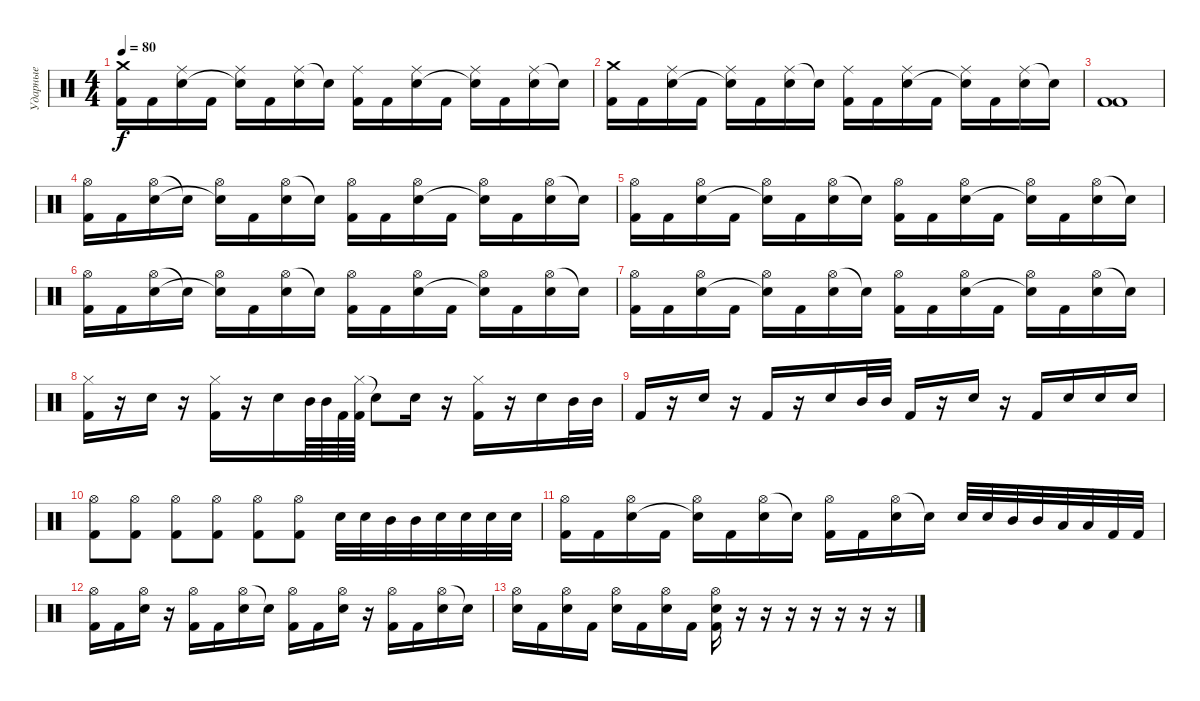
\track ("Ударные" "Ударные") {instrument percussion}
\staff {score}
\articulation defaults
\ts (4 4)
\tempo 80
\clef neutral
\ks c
("Crash medium (hit)" "Kick (hit) 2").16{dy f} "Kick (hit) 2".16 ("Ride (middle)" "Electric Snare (hit)").16 "Kick (hit) 2".16 ("Ride (middle)" "Snare (hit)"{t}).16 "Kick (hit) 2".16 ("Ride (middle)" "Electric Snare (hit)").16 "Snare (hit)"{t}.16 ("Ride (middle)" "Kick (hit) 2").16 "Kick (hit) 2".16 ("Ride (middle)" "Electric Snare (hit)").16 "Kick (hit) 2".16 ("Ride (middle)" "Snare (hit)"{t}).16 "Kick (hit) 2".16 ("Ride (middle)" "Electric Snare (hit)").16 "Snare (hit)"{t}.16 |
("Crash medium (hit)" "Kick (hit) 2").16 "Kick (hit) 2".16 ("Ride (middle)" "Electric Snare (hit)").16 "Kick (hit) 2".16 ("Ride (middle)" "Snare (hit)"{t}).16 "Kick (hit) 2".16 ("Ride (middle)" "Electric Snare (hit)").16 "Snare (hit)"{t}.16 ("Ride (middle)" "Kick (hit) 2").16 "Kick (hit) 2".16 ("Ride (middle)" "Electric Snare (hit)").16 "Kick (hit) 2".16 ("Ride (middle)" "Snare (hit)"{t}).16 "Kick (hit) 2".16 ("Ride (middle)" "Electric Snare (hit)").16 "Snare (hit)"{t}.16 |
("Kick (hit) 2" "Kick (hit) 2").1 |
("Hi-Hat (open)" "Kick (hit) 2").16 "Kick (hit) 2".16 ("Hi-Hat (open)" "Electric Snare (hit)").16 "Snare (hit)"{t}.16 ("Hi-Hat (open)" "Snare (hit)"{t}).16 "Kick (hit) 2".16 ("Hi-Hat (open)" "Electric Snare (hit)").16 "Snare (hit)"{t}.16 ("Hi-Hat (open)" "Kick (hit) 2").16 "Kick (hit) 2".16 ("Hi-Hat (open)" "Electric Snare (hit)").16 "Kick (hit) 2".16 ("Hi-Hat (open)" "Snare (hit)"{t}).16 "Kick (hit) 2".16 ("Hi-Hat (open)" "Electric Snare (hit)").16 "Snare (hit)"{t}.16 |
("Hi-Hat (open)" "Kick (hit) 2").16 "Kick (hit) 2".16 ("Hi-Hat (open)" "Electric Snare (hit)").16 "Kick (hit) 2".16 ("Hi-Hat (open)" "Snare (hit)"{t}).16 "Kick (hit) 2".16 ("Hi-Hat (open)" "Electric Snare (hit)").16 "Snare (hit)"{t}.16 ("Hi-Hat (open)" "Kick (hit) 2").16 "Kick (hit) 2".16 ("Hi-Hat (open)" "Electric Snare (hit)").16 "Kick (hit) 2".16 ("Hi-Hat (open)" "Snare (hit)"{t}).16 "Kick (hit) 2".16 ("Hi-Hat (open)" "Electric Snare (hit)").16 "Snare (hit)"{t}.16 |
("Hi-Hat (open)" "Kick (hit) 2").16 "Kick (hit) 2".16 ("Hi-Hat (open)" "Electric Snare (hit)").16 "Snare (hit)"{t}.16 ("Hi-Hat (open)" "Snare (hit)"{t}).16 "Kick (hit) 2".16 ("Hi-Hat (open)" "Electric Snare (hit)").16 "Snare (hit)"{t}.16 ("Hi-Hat (open)" "Kick (hit) 2").16 "Kick (hit) 2".16 ("Hi-Hat (open)" "Electric Snare (hit)").16 "Kick (hit) 2".16 ("Hi-Hat (open)" "Snare (hit)"{t}).16 "Kick (hit) 2".16 ("Hi-Hat (open)" "Electric Snare (hit)").16 "Snare (hit)"{t}.16 |
("Hi-Hat (open)" "Kick (hit) 2").16 "Kick (hit) 2".16 ("Hi-Hat (open)" "Electric Snare (hit)").16 "Kick (hit) 2".16 ("Hi-Hat (open)" "Snare (hit)"{t}).16 "Kick (hit) 2".16 ("Hi-Hat (open)" "Electric Snare (hit)").16 "Snare (hit)"{t}.16 ("Hi-Hat (open)" "Kick (hit) 2").16 "Kick (hit) 2".16 ("Hi-Hat (open)" "Electric Snare (hit)").16 "Kick (hit) 2".16 ("Hi-Hat (open)" "Snare (hit)"{t}).16 "Kick (hit) 2".16 ("Hi-Hat (open)" "Electric Snare (hit)").16 "Snare (hit)"{t}.16 |
("Hi-Hat (closed)" "Kick (hit) 2").16 r.16 "Electric Snare (hit)".16 r.16 ("Hi-Hat (closed)" "Kick (hit) 2").16 r.16 "Electric Snare (hit)".16 "Mid Tom (hit)".64 "Mid Tom (hit)".64 "Kick (hit) 2".64 ("Hi-Hat (closed)" "Kick (hit) 2").64 "Snare (hit)"{t}.8 "Electric Snare (hit)".16 r.16 ("Hi-Hat (closed)" "Kick (hit) 2").16 r.16 "Electric Snare (hit)".16 "Mid Tom (hit)".32 "Mid Tom (hit)".32 |
"Kick (hit) 2".16 r.16 "Electric Snare (hit)".16 r.16 "Kick (hit) 2".16 r.16 "Electric Snare (hit)".16 "Mid Tom (hit)".32 "Mid Tom (hit)".32 "Kick (hit) 2".16 r.16 "Electric Snare (hit)".16 r.16 "Kick (hit) 2".16 "Electric Snare (hit)".16 "Electric Snare (hit)".16 "Electric Snare (hit)".16 |
("Hi-Hat (open)" "Kick (hit) 2").8 ("Hi-Hat (open)" "Kick (hit) 2").8 ("Hi-Hat (open)" "Kick (hit) 2").8 ("Hi-Hat (open)" "Kick (hit) 2").8 ("Hi-Hat (open)" "Kick (hit) 2").8 ("Hi-Hat (open)" "Kick (hit) 2").8 "Electric Snare (hit)".32 "Electric Snare (hit)".32 "Mid Tom (hit)".32 "Mid Tom (hit)".32 "Electric Snare (hit)".32 "Electric Snare (hit)".32 "Electric Snare (hit)".32 "Electric Snare (hit)".32 |
("Hi-Hat (open)" "Kick (hit) 2").16 "Kick (hit) 2".16 ("Hi-Hat (open)" "Electric Snare (hit)").16 "Kick (hit) 2".16 ("Hi-Hat (open)" "Snare (hit)"{t}).16 "Kick (hit) 2".16 ("Hi-Hat (open)" "Electric Snare (hit)").16 "Snare (hit)"{t}.16 ("Hi-Hat (open)" "Kick (hit) 2").16 "Kick (hit) 2".16 ("Hi-Hat (open)" "Electric Snare (hit)").16 "Snare (hit)"{t}.16 "Electric Snare (hit)".32 "Electric Snare (hit)".32 "Mid Tom (hit)".32 "Mid Tom (hit)".32 "Low Tom (hit)".32 "Low Tom (hit)".32 "Kick (hit) 2".32 "Kick (hit) 2".32 |
("Hi-Hat (open)" "Kick (hit) 2").16 "Kick (hit) 2".16 ("Hi-Hat (open)" "Electric Snare (hit)").16 r.16 ("Hi-Hat (open)" "Kick (hit) 2").16 "Kick (hit) 2".16 ("Hi-Hat (open)" "Electric Snare (hit)").16 "Snare (hit)"{t}.16 ("Hi-Hat (open)" "Kick (hit) 2").16 "Kick (hit) 2".16 ("Hi-Hat (open)" "Electric Snare (hit)").16 r.16 ("Hi-Hat (open)" "Kick (hit) 2").16 "Kick (hit) 2".16 ("Hi-Hat (open)" "Electric Snare (hit)").16 "Snare (hit)"{t}.16 |
("Hi-Hat (open)" "Electric Snare (hit)").16 "Kick (hit) 2".16 ("Hi-Hat (open)" "Electric Snare (hit)").16 "Kick (hit) 2".16 ("Hi-Hat (open)" "Electric Snare (hit)").16 "Kick (hit) 2".16 ("Hi-Hat (open)" "Electric Snare (hit)").16 "Kick (hit) 2".16 ("Hi-Hat (open)" "Electric Snare (hit)" "Kick (hit) 2").16 r.16 r.16 r.16 r.16 r.16 r.16 r.16
